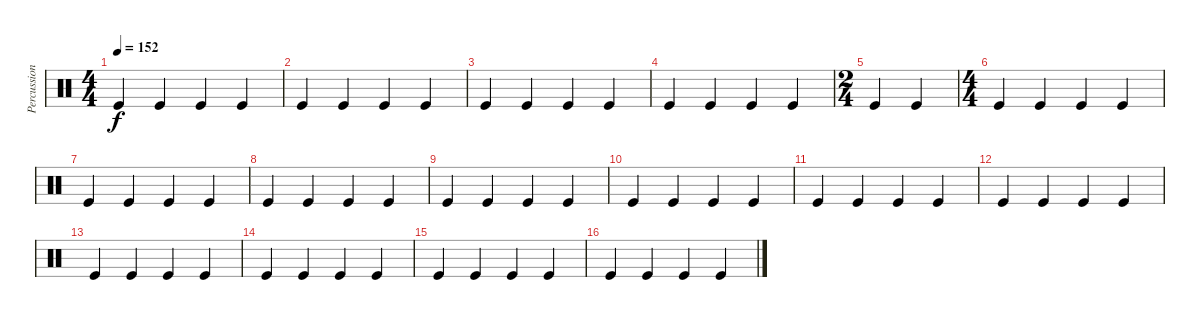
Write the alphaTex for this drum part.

\track ("Percussions" "Percussion") {instrument percussion}
\staff {score}
\articulation defaults
\ts (4 4)
\tempo 152
\clef neutral
\ks c "Kick (hit)".4{dy f} "Kick (hit)".4 "Kick (hit)".4 "Kick (hit)".4
|
"Kick (hit)".4 "Kick (hit)".4 "Kick (hit)".4 "Kick (hit)".4 |
"Kick (hit)".4 "Kick (hit)".4 "Kick (hit)".4 "Kick (hit)".4 |
"Kick (hit)".4 "Kick (hit)".4 "Kick (hit)".4 "Kick (hit)".4 |
\ts (2 4)
"Kick (hit)".4 "Kick (hit)".4 |
\ts (4 4)
"Kick (hit)".4 "Kick (hit)".4 "Kick (hit)".4 "Kick (hit)".4 |
"Kick (hit)".4 "Kick (hit)".4 "Kick (hit)".4 "Kick (hit)".4 |
"Kick (hit)".4 "Kick (hit)".4 "Kick (hit)".4 "Kick (hit)".4 |
"Kick (hit)".4 "Kick (hit)".4 "Kick (hit)".4 "Kick (hit)".4 |
"Kick (hit)".4 "Kick (hit)".4 "Kick (hit)".4 "Kick (hit)".4 |
"Kick (hit)".4 "Kick (hit)".4 "Kick (hit)".4 "Kick (hit)".4 |
"Kick (hit)".4 "Kick (hit)".4 "Kick (hit)".4 "Kick (hit)".4 |
"Kick (hit)".4 "Kick (hit)".4 "Kick (hit)".4 "Kick (hit)".4 |
"Kick (hit)".4 "Kick (hit)".4 "Kick (hit)".4 "Kick (hit)".4 |
"Kick (hit)".4 "Kick (hit)".4 "Kick (hit)".4 "Kick (hit)".4 |
"Kick (hit)".4 "Kick (hit)".4 "Kick (hit)".4 "Kick (hit)".4
